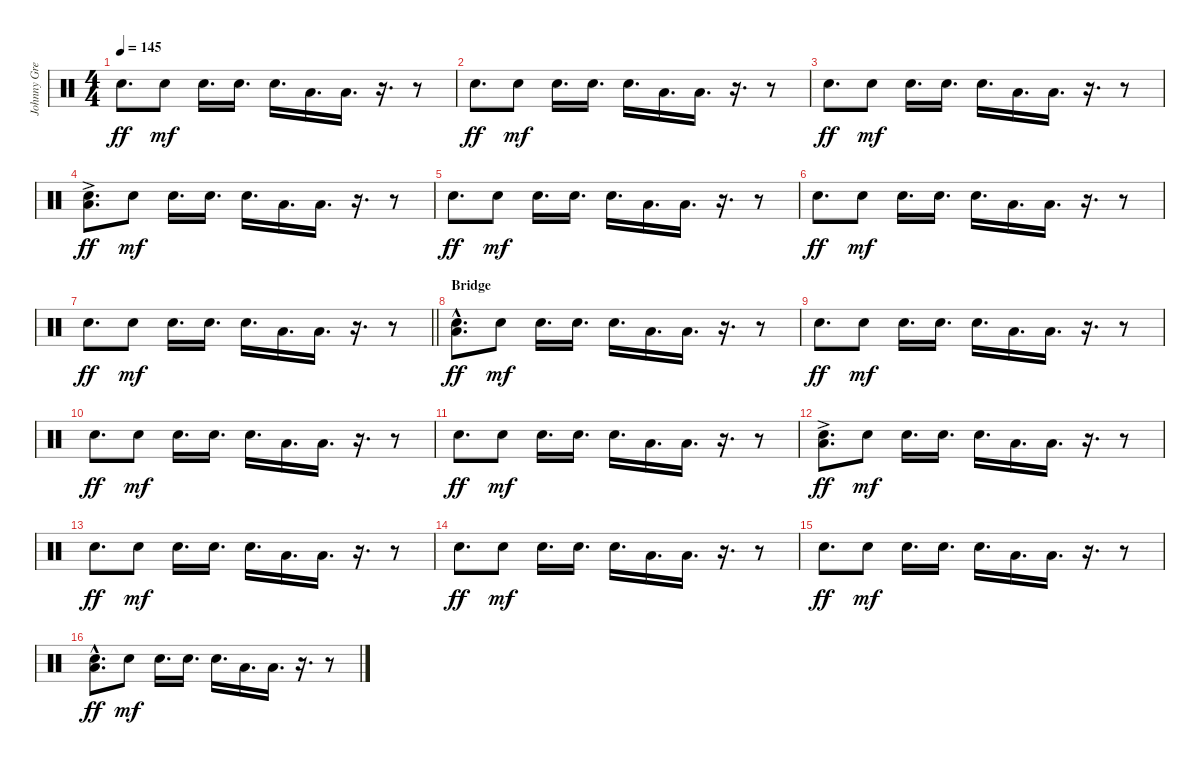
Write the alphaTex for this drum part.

\track ("Johnny Greenwood" "Johnny Gre") {instrument percussion}
\staff {score}
\articulation defaults
\ts (4 4)
\tempo 145
\clef neutral
\ks c "Snare (hit) 2".8{d dy ff} "Snare (hit) 2".8{dy mf} "Snare (hit) 2".16{d} "Snare (hit) 2".16{d} "Snare (hit) 2".16{d} "Low Floor Tom (hit)".16{d} "Low Floor Tom (hit)".16{d}
r.16{d} r.8 |
"Snare (hit) 2".8{d dy ff} "Snare (hit) 2".8{dy mf} "Snare (hit) 2".16{d} "Snare (hit) 2".16{d} "Snare (hit) 2".16{d} "Low Floor Tom (hit)".16{d} "Low Floor Tom (hit)".16{d} r.16{d} r.8 |
"Snare (hit) 2".8{d dy ff} "Snare (hit) 2".8{dy mf} "Snare (hit) 2".16{d} "Snare (hit) 2".16{d} "Snare (hit) 2".16{d} "Low Floor Tom (hit)".16{d} "Low Floor Tom (hit)".16{d} r.16{d} r.8 |
("Snare (hit) 2" "Low Floor Tom (hit)"{ac}).8{d dy ff} "Snare (hit) 2".8{dy mf} "Snare (hit) 2".16{d} "Snare (hit) 2".16{d} "Snare (hit) 2".16{d} "Low Floor Tom (hit)".16{d} "Low Floor Tom (hit)".16{d} r.16{d} r.8 |
"Snare (hit) 2".8{d dy ff} "Snare (hit) 2".8{dy mf} "Snare (hit) 2".16{d} "Snare (hit) 2".16{d} "Snare (hit) 2".16{d} "Low Floor Tom (hit)".16{d} "Low Floor Tom (hit)".16{d} r.16{d} r.8 |
"Snare (hit) 2".8{d dy ff} "Snare (hit) 2".8{dy mf} "Snare (hit) 2".16{d} "Snare (hit) 2".16{d} "Snare (hit) 2".16{d} "Low Floor Tom (hit)".16{d} "Low Floor Tom (hit)".16{d} r.16{d} r.8 |
\barLineRight lightlight "Snare (hit) 2".8{d dy ff} "Snare (hit) 2".8{dy mf} "Snare (hit) 2".16{d} "Snare (hit) 2".16{d} "Snare (hit) 2".16{d} "Low Floor Tom (hit)".16{d} "Low Floor Tom (hit)".16{d}
r.16{d} r.8 |
\section ("" "Bridge")
("Snare (hit) 2" "Low Floor Tom (hit)"{hac}).8{d dy ff} "Snare (hit) 2".8{dy mf} "Snare (hit) 2".16{d} "Snare (hit) 2".16{d} "Snare (hit) 2".16{d} "Low Floor Tom (hit)".16{d} "Low Floor Tom (hit)".16{d} r.16{d} r.8 |
"Snare (hit) 2".8{d dy ff} "Snare (hit) 2".8{dy mf} "Snare (hit) 2".16{d} "Snare (hit) 2".16{d} "Snare (hit) 2".16{d} "Low Floor Tom (hit)".16{d} "Low Floor Tom (hit)".16{d} r.16{d} r.8 |
"Snare (hit) 2".8{d dy ff} "Snare (hit) 2".8{dy mf} "Snare (hit) 2".16{d} "Snare (hit) 2".16{d} "Snare (hit) 2".16{d} "Low Floor Tom (hit)".16{d} "Low Floor Tom (hit)".16{d} r.16{d} r.8 |
"Snare (hit) 2".8{d dy ff} "Snare (hit) 2".8{dy mf} "Snare (hit) 2".16{d} "Snare (hit) 2".16{d} "Snare (hit) 2".16{d} "Low Floor Tom (hit)".16{d} "Low Floor Tom (hit)".16{d} r.16{d} r.8 |
("Snare (hit) 2" "Low Floor Tom (hit)"{ac}).8{d dy ff} "Snare (hit) 2".8{dy mf} "Snare (hit) 2".16{d} "Snare (hit) 2".16{d} "Snare (hit) 2".16{d} "Low Floor Tom (hit)".16{d} "Low Floor Tom (hit)".16{d} r.16{d} r.8 |
"Snare (hit) 2".8{d dy ff} "Snare (hit) 2".8{dy mf} "Snare (hit) 2".16{d} "Snare (hit) 2".16{d} "Snare (hit) 2".16{d} "Low Floor Tom (hit)".16{d} "Low Floor Tom (hit)".16{d} r.16{d} r.8 |
"Snare (hit) 2".8{d dy ff} "Snare (hit) 2".8{dy mf} "Snare (hit) 2".16{d} "Snare (hit) 2".16{d} "Snare (hit) 2".16{d} "Low Floor Tom (hit)".16{d} "Low Floor Tom (hit)".16{d} r.16{d} r.8 |
"Snare (hit) 2".8{d dy ff} "Snare (hit) 2".8{dy mf} "Snare (hit) 2".16{d} "Snare (hit) 2".16{d} "Snare (hit) 2".16{d} "Low Floor Tom (hit)".16{d} "Low Floor Tom (hit)".16{d} r.16{d} r.8 |
("Snare (hit) 2" "Low Floor Tom (hit)"{hac}).8{d dy ff} "Snare (hit) 2".8{dy mf} "Snare (hit) 2".16{d} "Snare (hit) 2".16{d} "Snare (hit) 2".16{d} "Low Floor Tom (hit)".16{d} "Low Floor Tom (hit)".16{d} r.16{d} r.8
